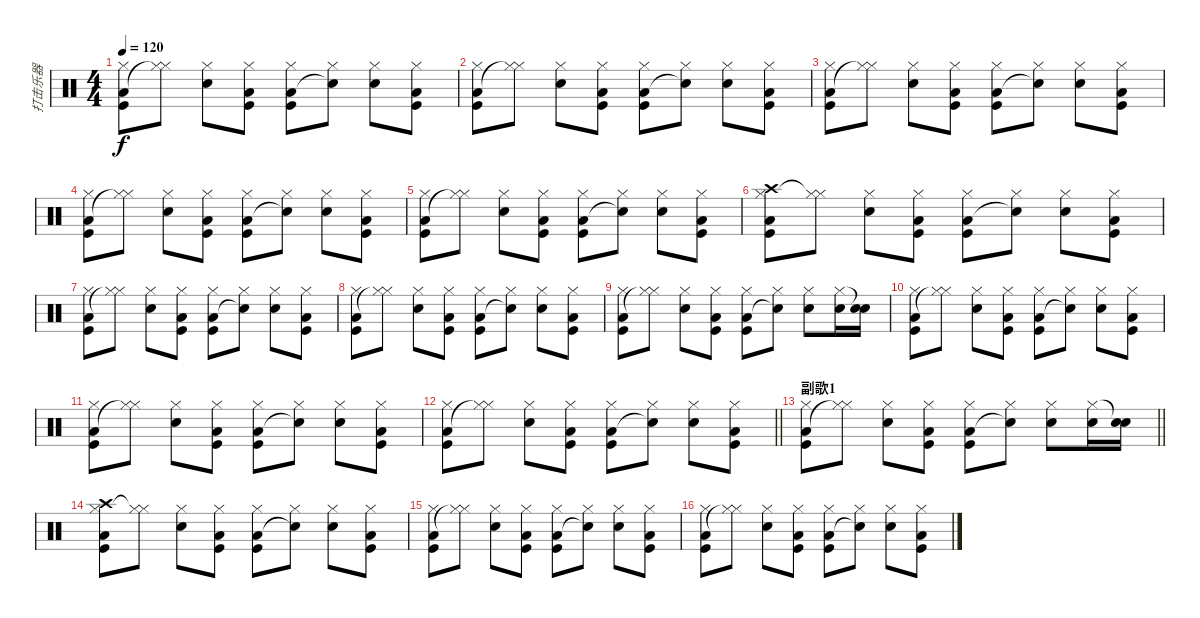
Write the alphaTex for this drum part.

\track ("打击乐器" "打击乐器") {instrument percussion}
\staff {score}
\articulation defaults
\ts (4 4)
\tempo 120
\clef neutral
\ks c
("Hi-Hat (closed)" "Low Floor Tom (hit)" "Kick (hit)").8{dy f} ("Hi-Hat (closed)" "Hi-Hat (closed)"{t}).8 ("Hi-Hat (closed)" "Electric Snare (hit)").8 ("Hi-Hat (closed)" "Low Floor Tom (hit)" "Kick (hit)").8 ("Hi-Hat (closed)" "Low Floor Tom (hit)" "Kick (hit)").8 ("Hi-Hat (closed)" "Snare (hit)"{t}).8 ("Hi-Hat (closed)" "Electric Snare (hit)").8 ("Hi-Hat (closed)" "Low Floor Tom (hit)" "Kick (hit)").8 |
("Hi-Hat (closed)" "Low Floor Tom (hit)" "Kick (hit)").8 ("Hi-Hat (closed)" "Hi-Hat (closed)"{t}).8 ("Hi-Hat (closed)" "Electric Snare (hit)").8 ("Hi-Hat (closed)" "Low Floor Tom (hit)" "Kick (hit)").8 ("Hi-Hat (closed)" "Low Floor Tom (hit)" "Kick (hit)").8 ("Hi-Hat (closed)" "Snare (hit)"{t}).8 ("Hi-Hat (closed)" "Electric Snare (hit)").8 ("Hi-Hat (closed)" "Low Floor Tom (hit)" "Kick (hit)").8 |
("Hi-Hat (closed)" "Low Floor Tom (hit)" "Kick (hit)").8 ("Hi-Hat (closed)" "Hi-Hat (closed)"{t}).8 ("Hi-Hat (closed)" "Electric Snare (hit)").8 ("Hi-Hat (closed)" "Low Floor Tom (hit)" "Kick (hit)").8 ("Hi-Hat (closed)" "Low Floor Tom (hit)" "Kick (hit)").8 ("Hi-Hat (closed)" "Snare (hit)"{t}).8 ("Hi-Hat (closed)" "Electric Snare (hit)").8 ("Hi-Hat (closed)" "Low Floor Tom (hit)" "Kick (hit)").8 |
("Hi-Hat (closed)" "Low Floor Tom (hit)" "Kick (hit)").8 ("Hi-Hat (closed)" "Hi-Hat (closed)"{t}).8 ("Hi-Hat (closed)" "Electric Snare (hit)").8 ("Hi-Hat (closed)" "Low Floor Tom (hit)" "Kick (hit)").8 ("Hi-Hat (closed)" "Low Floor Tom (hit)" "Kick (hit)").8 ("Hi-Hat (closed)" "Snare (hit)"{t}).8 ("Hi-Hat (closed)" "Electric Snare (hit)").8 ("Hi-Hat (closed)" "Low Floor Tom (hit)" "Kick (hit)").8 |
("Hi-Hat (closed)" "Low Floor Tom (hit)" "Kick (hit)").8 ("Hi-Hat (closed)" "Hi-Hat (closed)"{t}).8 ("Hi-Hat (closed)" "Electric Snare (hit)").8 ("Hi-Hat (closed)" "Low Floor Tom (hit)" "Kick (hit)").8 ("Hi-Hat (closed)" "Low Floor Tom (hit)" "Kick (hit)").8 ("Hi-Hat (closed)" "Snare (hit)"{t}).8 ("Hi-Hat (closed)" "Electric Snare (hit)").8 ("Hi-Hat (closed)" "Low Floor Tom (hit)" "Kick (hit)").8 |
("Crash high (hit)" "Hi-Hat (closed)" "Low Floor Tom (hit)" "Kick (hit)").8 ("Hi-Hat (closed)" "Hi-Hat (closed)"{t}).8 ("Hi-Hat (closed)" "Electric Snare (hit)").8 ("Hi-Hat (closed)" "Low Floor Tom (hit)" "Kick (hit)").8 ("Hi-Hat (closed)" "Low Floor Tom (hit)" "Kick (hit)").8 ("Hi-Hat (closed)" "Snare (hit)"{t}).8 ("Hi-Hat (closed)" "Electric Snare (hit)").8 ("Hi-Hat (closed)" "Low Floor Tom (hit)" "Kick (hit)").8 |
("Hi-Hat (closed)" "Low Floor Tom (hit)" "Kick (hit)").8 ("Hi-Hat (closed)" "Hi-Hat (closed)"{t}).8 ("Hi-Hat (closed)" "Electric Snare (hit)").8 ("Hi-Hat (closed)" "Low Floor Tom (hit)" "Kick (hit)").8 ("Hi-Hat (closed)" "Low Floor Tom (hit)" "Kick (hit)").8 ("Hi-Hat (closed)" "Snare (hit)"{t}).8 ("Hi-Hat (closed)" "Electric Snare (hit)").8 ("Hi-Hat (closed)" "Low Floor Tom (hit)" "Kick (hit)").8 |
("Hi-Hat (closed)" "Low Floor Tom (hit)" "Kick (hit)").8 ("Hi-Hat (closed)" "Hi-Hat (closed)"{t}).8 ("Hi-Hat (closed)" "Electric Snare (hit)").8 ("Hi-Hat (closed)" "Low Floor Tom (hit)" "Kick (hit)").8 ("Hi-Hat (closed)" "Low Floor Tom (hit)" "Kick (hit)").8 ("Hi-Hat (closed)" "Snare (hit)"{t}).8 ("Hi-Hat (closed)" "Electric Snare (hit)").8 ("Hi-Hat (closed)" "Low Floor Tom (hit)" "Kick (hit)").8 |
("Hi-Hat (closed)" "Low Floor Tom (hit)" "Kick (hit)").8 ("Hi-Hat (closed)" "Hi-Hat (closed)"{t}).8 ("Hi-Hat (closed)" "Electric Snare (hit)").8 ("Hi-Hat (closed)" "Low Floor Tom (hit)" "Kick (hit)").8 ("Hi-Hat (closed)" "Low Floor Tom (hit)" "Kick (hit)").8 ("Hi-Hat (closed)" "Snare (hit)"{t}).8 ("Hi-Hat (closed)" "Electric Snare (hit)").8 ("Hi-Hat (closed)" "Electric Snare (hit)").16 ("Snare (hit)"{t} "Electric Snare (hit)").16 |
("Hi-Hat (closed)" "Low Floor Tom (hit)" "Kick (hit)").8 ("Hi-Hat (closed)" "Hi-Hat (closed)"{t}).8 ("Hi-Hat (closed)" "Electric Snare (hit)").8 ("Hi-Hat (closed)" "Low Floor Tom (hit)" "Kick (hit)").8 ("Hi-Hat (closed)" "Low Floor Tom (hit)" "Kick (hit)").8 ("Hi-Hat (closed)" "Snare (hit)"{t}).8 ("Hi-Hat (closed)" "Electric Snare (hit)").8 ("Hi-Hat (closed)" "Low Floor Tom (hit)" "Kick (hit)").8 |
("Hi-Hat (closed)" "Low Floor Tom (hit)" "Kick (hit)").8 ("Hi-Hat (closed)" "Hi-Hat (closed)"{t}).8 ("Hi-Hat (closed)" "Electric Snare (hit)").8 ("Hi-Hat (closed)" "Low Floor Tom (hit)" "Kick (hit)").8 ("Hi-Hat (closed)" "Low Floor Tom (hit)" "Kick (hit)").8 ("Hi-Hat (closed)" "Snare (hit)"{t}).8 ("Hi-Hat (closed)" "Electric Snare (hit)").8 ("Hi-Hat (closed)" "Low Floor Tom (hit)" "Kick (hit)").8 |
\barLineRight lightlight
("Hi-Hat (closed)" "Low Floor Tom (hit)" "Kick (hit)").8 ("Hi-Hat (closed)" "Hi-Hat (closed)"{t}).8 ("Hi-Hat (closed)" "Electric Snare (hit)").8 ("Hi-Hat (closed)" "Low Floor Tom (hit)" "Kick (hit)").8 ("Hi-Hat (closed)" "Low Floor Tom (hit)" "Kick (hit)").8 ("Hi-Hat (closed)" "Snare (hit)"{t}).8 ("Hi-Hat (closed)" "Electric Snare (hit)").8 ("Hi-Hat (closed)" "Low Floor Tom (hit)" "Kick (hit)").8 |
\section ("" "副歌1")
\barLineRight lightlight
("Hi-Hat (closed)" "Low Floor Tom (hit)" "Kick (hit)").8 ("Hi-Hat (closed)" "Hi-Hat (closed)"{t}).8 ("Hi-Hat (closed)" "Electric Snare (hit)").8 ("Hi-Hat (closed)" "Low Floor Tom (hit)" "Kick (hit)").8 ("Hi-Hat (closed)" "Low Floor Tom (hit)" "Kick (hit)").8 ("Hi-Hat (closed)" "Snare (hit)"{t}).8 ("Hi-Hat (closed)" "Electric Snare (hit)").8 ("Hi-Hat (closed)" "Electric Snare (hit)").16 ("Snare (hit)"{t} "Electric Snare (hit)").16 |
("Crash high (hit)" "Hi-Hat (closed)" "Low Floor Tom (hit)" "Kick (hit)").8 ("Hi-Hat (closed)" "Hi-Hat (closed)"{t}).8 ("Hi-Hat (closed)" "Electric Snare (hit)").8 ("Hi-Hat (closed)" "Low Floor Tom (hit)" "Kick (hit)").8 ("Hi-Hat (closed)" "Low Floor Tom (hit)" "Kick (hit)").8 ("Hi-Hat (closed)" "Snare (hit)"{t}).8 ("Hi-Hat (closed)" "Electric Snare (hit)").8 ("Hi-Hat (closed)" "Low Floor Tom (hit)" "Kick (hit)").8 |
("Hi-Hat (closed)" "Low Floor Tom (hit)" "Kick (hit)").8 ("Hi-Hat (closed)" "Hi-Hat (closed)"{t}).8 ("Hi-Hat (closed)" "Electric Snare (hit)").8 ("Hi-Hat (closed)" "Low Floor Tom (hit)" "Kick (hit)").8 ("Hi-Hat (closed)" "Low Floor Tom (hit)" "Kick (hit)").8 ("Hi-Hat (closed)" "Snare (hit)"{t}).8 ("Hi-Hat (closed)" "Electric Snare (hit)").8 ("Hi-Hat (closed)" "Low Floor Tom (hit)" "Kick (hit)").8 |
("Hi-Hat (closed)" "Low Floor Tom (hit)" "Kick (hit)").8 ("Hi-Hat (closed)" "Hi-Hat (closed)"{t}).8 ("Hi-Hat (closed)" "Electric Snare (hit)").8 ("Hi-Hat (closed)" "Low Floor Tom (hit)" "Kick (hit)").8 ("Hi-Hat (closed)" "Low Floor Tom (hit)" "Kick (hit)").8 ("Hi-Hat (closed)" "Snare (hit)"{t}).8 ("Hi-Hat (closed)" "Electric Snare (hit)").8 ("Hi-Hat (closed)" "Low Floor Tom (hit)" "Kick (hit)").8
